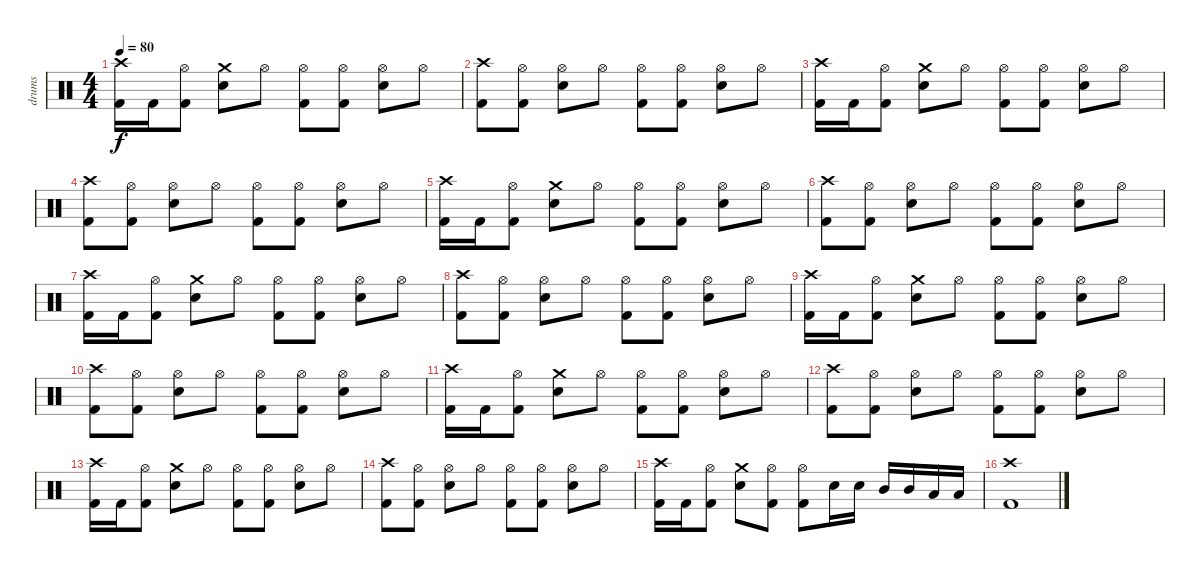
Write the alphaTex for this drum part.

\track ("drums" "drums") {instrument percussion}
\staff
\articulation defaults
\ts (4 4)
\tempo 80
\clef neutral
\ks c
("Crash high (hit)" "Kick (hit) 2").16{dy f} "Kick (hit) 2".16 ("Hi-Hat (open)" "Kick (hit) 2").8 ("Crash medium (hit)" "Electric Snare (hit)").8 "Hi-Hat (open)".8 ("Hi-Hat (open)" "Kick (hit) 2").8 ("Hi-Hat (open)" "Kick (hit) 2").8 ("Hi-Hat (open)" "Electric Snare (hit)").8 "Hi-Hat (open)".8 |
("Crash high (hit)" "Kick (hit) 2").8 ("Hi-Hat (open)" "Kick (hit) 2").8 ("Hi-Hat (open)" "Electric Snare (hit)").8 "Hi-Hat (open)".8 ("Hi-Hat (open)" "Kick (hit) 2").8 ("Hi-Hat (open)" "Kick (hit) 2").8 ("Hi-Hat (open)" "Electric Snare (hit)").8 "Hi-Hat (open)".8 |
("Crash high (hit)" "Kick (hit) 2").16 "Kick (hit) 2".16 ("Hi-Hat (open)" "Kick (hit) 2").8 ("Crash medium (hit)" "Electric Snare (hit)").8 "Hi-Hat (open)".8 ("Hi-Hat (open)" "Kick (hit) 2").8 ("Hi-Hat (open)" "Kick (hit) 2").8 ("Hi-Hat (open)" "Electric Snare (hit)").8 "Hi-Hat (open)".8 |
("Crash high (hit)" "Kick (hit) 2").8 ("Hi-Hat (open)" "Kick (hit) 2").8 ("Hi-Hat (open)" "Electric Snare (hit)").8 "Hi-Hat (open)".8 ("Hi-Hat (open)" "Kick (hit) 2").8 ("Hi-Hat (open)" "Kick (hit) 2").8 ("Hi-Hat (open)" "Electric Snare (hit)").8 "Hi-Hat (open)".8 |
("Crash high (hit)" "Kick (hit) 2").16 "Kick (hit) 2".16 ("Hi-Hat (open)" "Kick (hit) 2").8 ("Crash medium (hit)" "Electric Snare (hit)").8 "Hi-Hat (open)".8 ("Hi-Hat (open)" "Kick (hit) 2").8 ("Hi-Hat (open)" "Kick (hit) 2").8 ("Hi-Hat (open)" "Electric Snare (hit)").8 "Hi-Hat (open)".8 |
("Crash high (hit)" "Kick (hit) 2").8 ("Hi-Hat (open)" "Kick (hit) 2").8 ("Hi-Hat (open)" "Electric Snare (hit)").8 "Hi-Hat (open)".8 ("Hi-Hat (open)" "Kick (hit) 2").8 ("Hi-Hat (open)" "Kick (hit) 2").8 ("Hi-Hat (open)" "Electric Snare (hit)").8 "Hi-Hat (open)".8 |
("Crash high (hit)" "Kick (hit) 2").16 "Kick (hit) 2".16 ("Hi-Hat (open)" "Kick (hit) 2").8 ("Crash medium (hit)" "Electric Snare (hit)").8 "Hi-Hat (open)".8 ("Hi-Hat (open)" "Kick (hit) 2").8 ("Hi-Hat (open)" "Kick (hit) 2").8 ("Hi-Hat (open)" "Electric Snare (hit)").8 "Hi-Hat (open)".8 |
("Crash high (hit)" "Kick (hit) 2").8 ("Hi-Hat (open)" "Kick (hit) 2").8 ("Hi-Hat (open)" "Electric Snare (hit)").8 "Hi-Hat (open)".8 ("Hi-Hat (open)" "Kick (hit) 2").8 ("Hi-Hat (open)" "Kick (hit) 2").8 ("Hi-Hat (open)" "Electric Snare (hit)").8 "Hi-Hat (open)".8 |
("Crash high (hit)" "Kick (hit) 2").16 "Kick (hit) 2".16 ("Hi-Hat (open)" "Kick (hit) 2").8 ("Crash medium (hit)" "Electric Snare (hit)").8 "Hi-Hat (open)".8 ("Hi-Hat (open)" "Kick (hit) 2").8 ("Hi-Hat (open)" "Kick (hit) 2").8 ("Hi-Hat (open)" "Electric Snare (hit)").8 "Hi-Hat (open)".8 |
("Crash high (hit)" "Kick (hit) 2").8 ("Hi-Hat (open)" "Kick (hit) 2").8 ("Hi-Hat (open)" "Electric Snare (hit)").8 "Hi-Hat (open)".8 ("Hi-Hat (open)" "Kick (hit) 2").8 ("Hi-Hat (open)" "Kick (hit) 2").8 ("Hi-Hat (open)" "Electric Snare (hit)").8 "Hi-Hat (open)".8 |
("Crash high (hit)" "Kick (hit) 2").16 "Kick (hit) 2".16 ("Hi-Hat (open)" "Kick (hit) 2").8 ("Crash medium (hit)" "Electric Snare (hit)").8 "Hi-Hat (open)".8 ("Hi-Hat (open)" "Kick (hit) 2").8 ("Hi-Hat (open)" "Kick (hit) 2").8 ("Hi-Hat (open)" "Electric Snare (hit)").8 "Hi-Hat (open)".8 |
("Crash high (hit)" "Kick (hit) 2").8 ("Hi-Hat (open)" "Kick (hit) 2").8 ("Hi-Hat (open)" "Electric Snare (hit)").8 "Hi-Hat (open)".8 ("Hi-Hat (open)" "Kick (hit) 2").8 ("Hi-Hat (open)" "Kick (hit) 2").8 ("Hi-Hat (open)" "Electric Snare (hit)").8 "Hi-Hat (open)".8 |
("Crash high (hit)" "Kick (hit) 2").16 "Kick (hit) 2".16 ("Hi-Hat (open)" "Kick (hit) 2").8 ("Crash medium (hit)" "Electric Snare (hit)").8 "Hi-Hat (open)".8 ("Hi-Hat (open)" "Kick (hit) 2").8 ("Hi-Hat (open)" "Kick (hit) 2").8 ("Hi-Hat (open)" "Electric Snare (hit)").8 "Hi-Hat (open)".8 |
("Crash high (hit)" "Kick (hit) 2").8 ("Hi-Hat (open)" "Kick (hit) 2").8 ("Hi-Hat (open)" "Electric Snare (hit)").8 "Hi-Hat (open)".8 ("Hi-Hat (open)" "Kick (hit) 2").8 ("Hi-Hat (open)" "Kick (hit) 2").8 ("Hi-Hat (open)" "Electric Snare (hit)").8 "Hi-Hat (open)".8 |
("Crash high (hit)" "Kick (hit) 2").16 "Kick (hit) 2".16 ("Hi-Hat (open)" "Kick (hit) 2").8 ("Crash medium (hit)" "Electric Snare (hit)").8 ("Hi-Hat (open)" "Kick (hit) 2").8 ("Hi-Hat (open)" "Kick (hit) 2").8 "Electric Snare (hit)".16 "Electric Snare (hit)".16 "Mid Tom (hit)".16 "Mid Tom (hit)".16 "Low Tom (hit)".16 "Low Tom (hit)".16 |
("Crash high (hit)" "Kick (hit) 2").1
